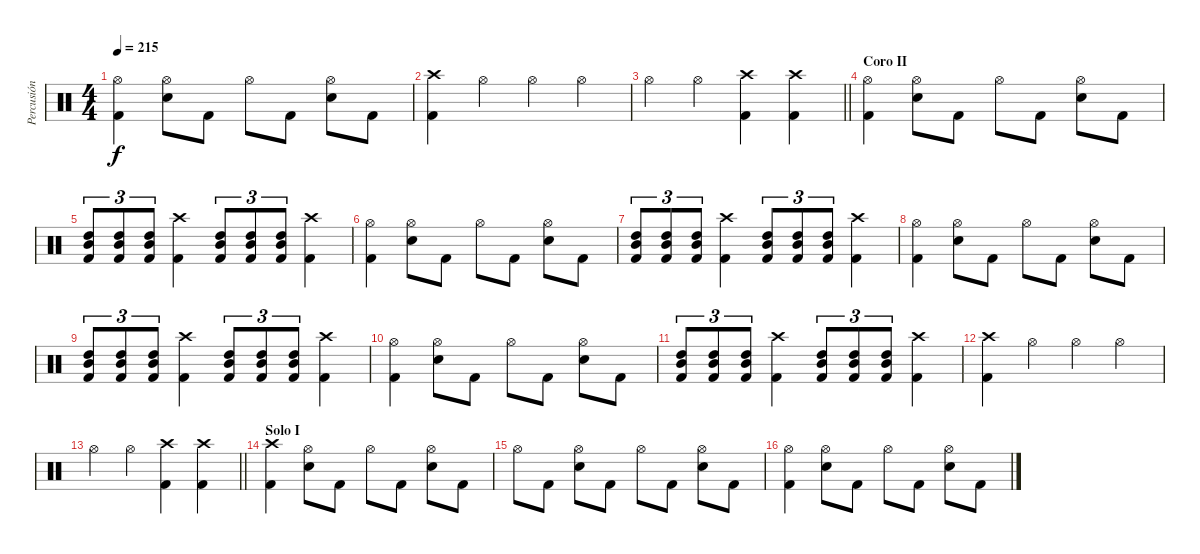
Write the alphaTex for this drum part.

\track ("Percusión" "Percusión") {instrument percussion}
\staff {score}
\articulation defaults
\ts (4 4)
\tempo 215
\clef neutral
\ks c
("Hi-Hat (open)" "Kick (hit) 2").4{dy f} ("Hi-Hat (open)" "Electric Snare (hit)").8 "Kick (hit) 2".8 "Hi-Hat (open)".8 "Kick (hit) 2".8 ("Hi-Hat (open)" "Electric Snare (hit)").8 "Kick (hit) 2".8 |
("Crash high (hit)" "Kick (hit) 2").4 "Hi-Hat (open)".4 "Hi-Hat (open)".4 "Hi-Hat (open)".4 |
\barLineRight lightlight "Hi-Hat (open)".4 "Hi-Hat (open)".4
("Crash high (hit)" "Kick (hit) 2").4 ("Crash high (hit)" "Kick (hit) 2").4 |
\section ("" "Coro II")
("Hi-Hat (open)" "Kick (hit) 2").4 ("Hi-Hat (open)" "Electric Snare (hit)").8 "Kick (hit) 2".8 "Hi-Hat (open)".8 "Kick (hit) 2".8 ("Hi-Hat (open)" "Electric Snare (hit)").8 "Kick (hit) 2".8 |
("High Tom (hit)" "Mid Tom (hit)" "Kick (hit) 2").8{tu (3 2)} ("High Tom (hit)" "Mid Tom (hit)" "Kick (hit) 2").8{tu (3 2)} ("High Tom (hit)" "Mid Tom (hit)" "Kick (hit) 2").8{tu (3 2)} ("Crash high (hit)" "Kick (hit) 2").4 ("High Tom (hit)" "Mid Tom (hit)" "Kick (hit) 2").8{tu (3 2)} ("High Tom (hit)" "Mid Tom (hit)" "Kick (hit) 2").8{tu (3 2)} ("High Tom (hit)" "Mid Tom (hit)" "Kick (hit) 2").8{tu (3 2)} ("Crash high (hit)" "Kick (hit) 2").4 |
("Hi-Hat (open)" "Kick (hit) 2").4 ("Hi-Hat (open)" "Electric Snare (hit)").8 "Kick (hit) 2".8 "Hi-Hat (open)".8 "Kick (hit) 2".8 ("Hi-Hat (open)" "Electric Snare (hit)").8 "Kick (hit) 2".8 |
("High Tom (hit)" "Mid Tom (hit)" "Kick (hit) 2").8{tu (3 2)} ("High Tom (hit)" "Mid Tom (hit)" "Kick (hit) 2").8{tu (3 2)} ("High Tom (hit)" "Mid Tom (hit)" "Kick (hit) 2").8{tu (3 2)} ("Crash high (hit)" "Kick (hit) 2").4 ("High Tom (hit)" "Mid Tom (hit)" "Kick (hit) 2").8{tu (3 2)} ("High Tom (hit)" "Mid Tom (hit)" "Kick (hit) 2").8{tu (3 2)} ("High Tom (hit)" "Mid Tom (hit)" "Kick (hit) 2").8{tu (3 2)} ("Crash high (hit)" "Kick (hit) 2").4 |
("Hi-Hat (open)" "Kick (hit) 2").4 ("Hi-Hat (open)" "Electric Snare (hit)").8 "Kick (hit) 2".8 "Hi-Hat (open)".8 "Kick (hit) 2".8 ("Hi-Hat (open)" "Electric Snare (hit)").8 "Kick (hit) 2".8 |
("High Tom (hit)" "Mid Tom (hit)" "Kick (hit) 2").8{tu (3 2)} ("High Tom (hit)" "Mid Tom (hit)" "Kick (hit) 2").8{tu (3 2)} ("High Tom (hit)" "Mid Tom (hit)" "Kick (hit) 2").8{tu (3 2)} ("Crash high (hit)" "Kick (hit) 2").4 ("High Tom (hit)" "Mid Tom (hit)" "Kick (hit) 2").8{tu (3 2)} ("High Tom (hit)" "Mid Tom (hit)" "Kick (hit) 2").8{tu (3 2)} ("High Tom (hit)" "Mid Tom (hit)" "Kick (hit) 2").8{tu (3 2)} ("Crash high (hit)" "Kick (hit) 2").4 |
("Hi-Hat (open)" "Kick (hit) 2").4 ("Hi-Hat (open)" "Electric Snare (hit)").8 "Kick (hit) 2".8 "Hi-Hat (open)".8 "Kick (hit) 2".8 ("Hi-Hat (open)" "Electric Snare (hit)").8 "Kick (hit) 2".8 |
("High Tom (hit)" "Mid Tom (hit)" "Kick (hit) 2").8{tu (3 2)} ("High Tom (hit)" "Mid Tom (hit)" "Kick (hit) 2").8{tu (3 2)} ("High Tom (hit)" "Mid Tom (hit)" "Kick (hit) 2").8{tu (3 2)} ("Crash high (hit)" "Kick (hit) 2").4 ("High Tom (hit)" "Mid Tom (hit)" "Kick (hit) 2").8{tu (3 2)} ("High Tom (hit)" "Mid Tom (hit)" "Kick (hit) 2").8{tu (3 2)} ("High Tom (hit)" "Mid Tom (hit)" "Kick (hit) 2").8{tu (3 2)} ("Crash high (hit)" "Kick (hit) 2").4 |
("Crash high (hit)" "Kick (hit) 2").4 "Hi-Hat (open)".4 "Hi-Hat (open)".4 "Hi-Hat (open)".4 |
\barLineRight lightlight "Hi-Hat (open)".4 "Hi-Hat (open)".4
("Crash high (hit)" "Kick (hit) 2").4 ("Crash high (hit)" "Kick (hit) 2").4 |
\section ("" "Solo I")
("Crash high (hit)" "Kick (hit) 2").4 ("Hi-Hat (open)" "Electric Snare (hit)").8 "Kick (hit) 2".8 "Hi-Hat (open)".8 "Kick (hit) 2".8 ("Hi-Hat (open)" "Electric Snare (hit)").8 "Kick (hit) 2".8 |
"Hi-Hat (open)".8 "Kick (hit) 2".8 ("Hi-Hat (open)" "Electric Snare (hit)").8 "Kick (hit) 2".8 "Hi-Hat (open)".8 "Kick (hit) 2".8 ("Hi-Hat (open)" "Electric Snare (hit)").8 "Kick (hit) 2".8 |
("Hi-Hat (open)" "Kick (hit) 2").4 ("Hi-Hat (open)" "Electric Snare (hit)").8 "Kick (hit) 2".8 "Hi-Hat (open)".8 "Kick (hit) 2".8 ("Hi-Hat (open)" "Electric Snare (hit)").8 "Kick (hit) 2".8
